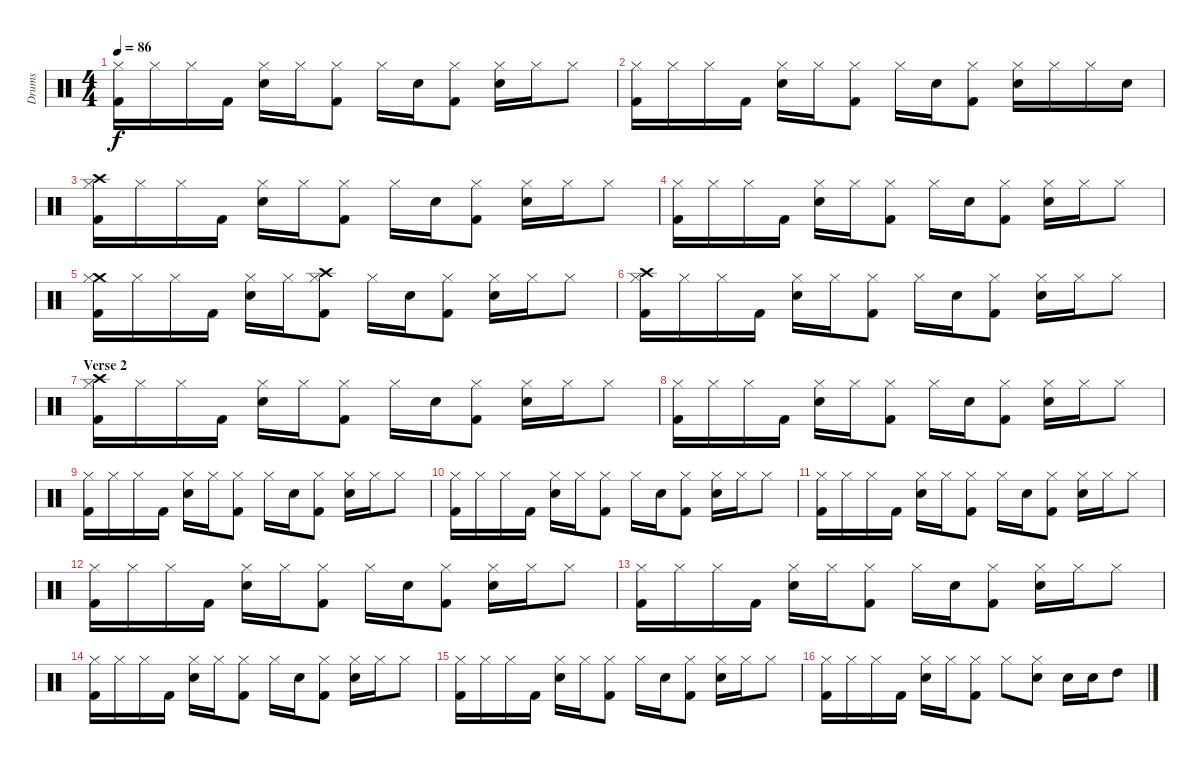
\track ("Drums" "Drums") {instrument percussion}
\staff {score}
\articulation defaults
\ts (4 4)
\tempo 86
\clef neutral
\ks c
("Hi-Hat (closed)" "Kick (hit) 2").16{dy f} "Hi-Hat (closed)".16 "Hi-Hat (closed)".16 "Kick (hit) 2".16 ("Hi-Hat (closed)" "Electric Snare (hit)").16 "Hi-Hat (closed)".16 ("Hi-Hat (closed)" "Kick (hit) 2").8 "Hi-Hat (closed)".16 "Electric Snare (hit)".16 ("Hi-Hat (closed)" "Kick (hit) 2").8 ("Hi-Hat (closed)" "Electric Snare (hit)").16 "Hi-Hat (closed)".16 "Hi-Hat (closed)".8 |
("Hi-Hat (closed)" "Kick (hit) 2").16 "Hi-Hat (closed)".16 "Hi-Hat (closed)".16 "Kick (hit) 2".16 ("Hi-Hat (closed)" "Electric Snare (hit)").16 "Hi-Hat (closed)".16 ("Hi-Hat (closed)" "Kick (hit) 2").8 "Hi-Hat (closed)".16 "Electric Snare (hit)".16 ("Hi-Hat (closed)" "Kick (hit) 2").8 ("Hi-Hat (closed)" "Electric Snare (hit)").16 "Hi-Hat (closed)".16 "Hi-Hat (closed)".16 "Electric Snare (hit)".16 |
("Crash high (hit)" "Hi-Hat (closed)" "Kick (hit) 2").16 "Hi-Hat (closed)".16 "Hi-Hat (closed)".16 "Kick (hit) 2".16 ("Hi-Hat (closed)" "Electric Snare (hit)").16 "Hi-Hat (closed)".16 ("Hi-Hat (closed)" "Kick (hit) 2").8 "Hi-Hat (closed)".16 "Electric Snare (hit)".16 ("Hi-Hat (closed)" "Kick (hit) 2").8 ("Hi-Hat (closed)" "Electric Snare (hit)").16 "Hi-Hat (closed)".16 "Hi-Hat (closed)".8 |
("Hi-Hat (closed)" "Kick (hit) 2").16 "Hi-Hat (closed)".16 "Hi-Hat (closed)".16 "Kick (hit) 2".16 ("Hi-Hat (closed)" "Electric Snare (hit)").16 "Hi-Hat (closed)".16 ("Hi-Hat (closed)" "Kick (hit) 2").8 "Hi-Hat (closed)".16 "Electric Snare (hit)".16 ("Hi-Hat (closed)" "Kick (hit) 2").8 ("Hi-Hat (closed)" "Electric Snare (hit)").16 "Hi-Hat (closed)".16 "Hi-Hat (closed)".8 |
("Crash medium (hit)" "Hi-Hat (closed)" "Kick (hit) 2").16 "Hi-Hat (closed)".16 "Hi-Hat (closed)".16 "Kick (hit) 2".16 ("Hi-Hat (closed)" "Electric Snare (hit)").16 "Hi-Hat (closed)".16 ("Crash high (hit)" "Hi-Hat (closed)" "Kick (hit) 2").8 "Hi-Hat (closed)".16 "Electric Snare (hit)".16 ("Hi-Hat (closed)" "Kick (hit) 2").8 ("Hi-Hat (closed)" "Electric Snare (hit)").16 "Hi-Hat (closed)".16 "Hi-Hat (closed)".8 |
("Crash high (hit)" "Hi-Hat (closed)" "Kick (hit) 2").16 "Hi-Hat (closed)".16 "Hi-Hat (closed)".16 "Kick (hit) 2".16 ("Hi-Hat (closed)" "Electric Snare (hit)").16 "Hi-Hat (closed)".16 ("Hi-Hat (closed)" "Kick (hit) 2").8 "Hi-Hat (closed)".16 "Electric Snare (hit)".16 ("Hi-Hat (closed)" "Kick (hit) 2").8 ("Hi-Hat (closed)" "Electric Snare (hit)").16 "Hi-Hat (closed)".16 "Hi-Hat (closed)".8 |
\section ("" "Verse 2")
("Crash high (hit)" "Hi-Hat (closed)" "Kick (hit) 2").16 "Hi-Hat (closed)".16 "Hi-Hat (closed)".16 "Kick (hit) 2".16 ("Hi-Hat (closed)" "Electric Snare (hit)").16 "Hi-Hat (closed)".16 ("Hi-Hat (closed)" "Kick (hit) 2").8 "Hi-Hat (closed)".16 "Electric Snare (hit)".16 ("Hi-Hat (closed)" "Kick (hit) 2").8 ("Hi-Hat (closed)" "Electric Snare (hit)").16 "Hi-Hat (closed)".16 "Hi-Hat (closed)".8 |
("Hi-Hat (closed)" "Kick (hit) 2").16 "Hi-Hat (closed)".16 "Hi-Hat (closed)".16 "Kick (hit) 2".16 ("Hi-Hat (closed)" "Electric Snare (hit)").16 "Hi-Hat (closed)".16 ("Hi-Hat (closed)" "Kick (hit) 2").8 "Hi-Hat (closed)".16 "Electric Snare (hit)".16 ("Hi-Hat (closed)" "Kick (hit) 2").8 ("Hi-Hat (closed)" "Electric Snare (hit)").16 "Hi-Hat (closed)".16 "Hi-Hat (closed)".8 |
("Hi-Hat (closed)" "Kick (hit) 2").16 "Hi-Hat (closed)".16 "Hi-Hat (closed)".16 "Kick (hit) 2".16 ("Hi-Hat (closed)" "Electric Snare (hit)").16 "Hi-Hat (closed)".16 ("Hi-Hat (closed)" "Kick (hit) 2").8 "Hi-Hat (closed)".16 "Electric Snare (hit)".16 ("Hi-Hat (closed)" "Kick (hit) 2").8 ("Hi-Hat (closed)" "Electric Snare (hit)").16 "Hi-Hat (closed)".16 "Hi-Hat (closed)".8 |
("Hi-Hat (closed)" "Kick (hit) 2").16 "Hi-Hat (closed)".16 "Hi-Hat (closed)".16 "Kick (hit) 2".16 ("Hi-Hat (closed)" "Electric Snare (hit)").16 "Hi-Hat (closed)".16 ("Hi-Hat (closed)" "Kick (hit) 2").8 "Hi-Hat (closed)".16 "Electric Snare (hit)".16 ("Hi-Hat (closed)" "Kick (hit) 2").8 ("Hi-Hat (closed)" "Electric Snare (hit)").16 "Hi-Hat (closed)".16 "Hi-Hat (closed)".8 |
("Hi-Hat (closed)" "Kick (hit) 2").16 "Hi-Hat (closed)".16 "Hi-Hat (closed)".16 "Kick (hit) 2".16 ("Hi-Hat (closed)" "Electric Snare (hit)").16 "Hi-Hat (closed)".16 ("Hi-Hat (closed)" "Kick (hit) 2").8 "Hi-Hat (closed)".16 "Electric Snare (hit)".16 ("Hi-Hat (closed)" "Kick (hit) 2").8 ("Hi-Hat (closed)" "Electric Snare (hit)").16 "Hi-Hat (closed)".16 "Hi-Hat (closed)".8 |
("Hi-Hat (closed)" "Kick (hit) 2").16 "Hi-Hat (closed)".16 "Hi-Hat (closed)".16 "Kick (hit) 2".16 ("Hi-Hat (closed)" "Electric Snare (hit)").16 "Hi-Hat (closed)".16 ("Hi-Hat (closed)" "Kick (hit) 2").8 "Hi-Hat (closed)".16 "Electric Snare (hit)".16 ("Hi-Hat (closed)" "Kick (hit) 2").8 ("Hi-Hat (closed)" "Electric Snare (hit)").16 "Hi-Hat (closed)".16 "Hi-Hat (closed)".8 |
("Hi-Hat (closed)" "Kick (hit) 2").16 "Hi-Hat (closed)".16 "Hi-Hat (closed)".16 "Kick (hit) 2".16 ("Hi-Hat (closed)" "Electric Snare (hit)").16 "Hi-Hat (closed)".16 ("Hi-Hat (closed)" "Kick (hit) 2").8 "Hi-Hat (closed)".16 "Electric Snare (hit)".16 ("Hi-Hat (closed)" "Kick (hit) 2").8 ("Hi-Hat (closed)" "Electric Snare (hit)").16 "Hi-Hat (closed)".16 "Hi-Hat (closed)".8 |
("Hi-Hat (closed)" "Kick (hit) 2").16 "Hi-Hat (closed)".16 "Hi-Hat (closed)".16 "Kick (hit) 2".16 ("Hi-Hat (closed)" "Electric Snare (hit)").16 "Hi-Hat (closed)".16 ("Hi-Hat (closed)" "Kick (hit) 2").8 "Hi-Hat (closed)".16 "Electric Snare (hit)".16 ("Hi-Hat (closed)" "Kick (hit) 2").8 ("Hi-Hat (closed)" "Electric Snare (hit)").16 "Hi-Hat (closed)".16 "Hi-Hat (closed)".8 |
("Hi-Hat (closed)" "Kick (hit) 2").16 "Hi-Hat (closed)".16 "Hi-Hat (closed)".16 "Kick (hit) 2".16 ("Hi-Hat (closed)" "Electric Snare (hit)").16 "Hi-Hat (closed)".16 ("Hi-Hat (closed)" "Kick (hit) 2").8 "Hi-Hat (closed)".16 "Electric Snare (hit)".16 ("Hi-Hat (closed)" "Kick (hit) 2").8 ("Hi-Hat (closed)" "Electric Snare (hit)").16 "Hi-Hat (closed)".16 "Hi-Hat (closed)".8 |
("Hi-Hat (closed)" "Kick (hit) 2").16 "Hi-Hat (closed)".16 "Hi-Hat (closed)".16 "Kick (hit) 2".16 ("Hi-Hat (closed)" "Electric Snare (hit)").16 "Hi-Hat (closed)".16 ("Hi-Hat (closed)" "Kick (hit) 2").8 "Hi-Hat (closed)".8 ("Hi-Hat (closed)" "Electric Snare (hit)").8 "Electric Snare (hit)".16 "Electric Snare (hit)".16 "High Tom (hit)".8
